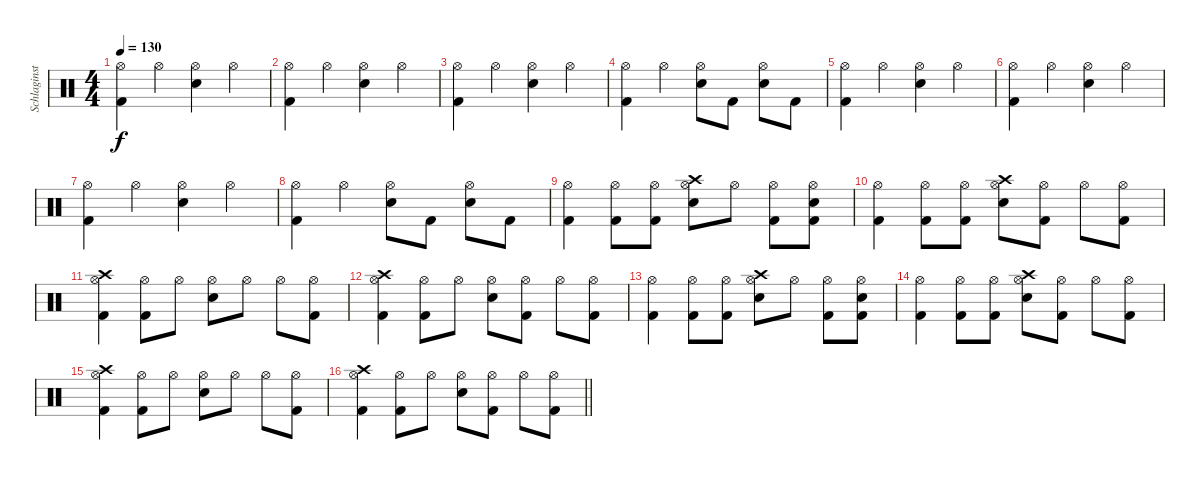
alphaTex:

\track ("Schlaginstrumente - Auswahl" "Schlaginst") {instrument percussion}
\staff {score}
\articulation defaults
\ts (4 4)
\tempo 130
\clef neutral
\ks c
("Hi-Hat (open)" "Kick (hit) 2").4{dy f} "Hi-Hat (open)".4 ("Hi-Hat (open)" "Snare (hit) 2").4 "Hi-Hat (open)".4 |
("Hi-Hat (open)" "Kick (hit) 2").4 "Hi-Hat (open)".4 ("Hi-Hat (open)" "Snare (hit) 2").4 "Hi-Hat (open)".4 |
("Hi-Hat (open)" "Kick (hit) 2").4 "Hi-Hat (open)".4 ("Hi-Hat (open)" "Snare (hit) 2").4 "Hi-Hat (open)".4 |
("Hi-Hat (open)" "Kick (hit) 2").4 "Hi-Hat (open)".4 ("Hi-Hat (open)" "Snare (hit) 2").8 "Kick (hit) 2".8 ("Hi-Hat (open)" "Snare (hit) 2").8 "Kick (hit) 2".8 |
("Hi-Hat (open)" "Kick (hit) 2").4 "Hi-Hat (open)".4 ("Hi-Hat (open)" "Snare (hit) 2").4 "Hi-Hat (open)".4 |
("Hi-Hat (open)" "Kick (hit) 2").4 "Hi-Hat (open)".4 ("Hi-Hat (open)" "Snare (hit) 2").4 "Hi-Hat (open)".4 |
("Hi-Hat (open)" "Kick (hit) 2").4 "Hi-Hat (open)".4 ("Hi-Hat (open)" "Snare (hit) 2").4 "Hi-Hat (open)".4 |
("Hi-Hat (open)" "Kick (hit) 2").4 "Hi-Hat (open)".4 ("Hi-Hat (open)" "Snare (hit) 2").8 "Kick (hit) 2".8 ("Hi-Hat (open)" "Snare (hit) 2").8 "Kick (hit) 2".8 |
("Hi-Hat (open)" "Kick (hit) 2").4 ("Hi-Hat (open)" "Kick (hit) 2").8 ("Hi-Hat (open)" "Kick (hit) 2").8 ("Crash high (hit)" "Hi-Hat (open)" "Snare (hit) 2").8 "Hi-Hat (open)".8 ("Hi-Hat (open)" "Kick (hit) 2").8 ("Hi-Hat (open)" "Snare (hit) 2" "Kick (hit) 2").8 |
("Hi-Hat (open)" "Kick (hit) 2").4 ("Hi-Hat (open)" "Kick (hit) 2").8 ("Hi-Hat (open)" "Kick (hit) 2").8 ("Crash high (hit)" "Hi-Hat (open)" "Snare (hit) 2").8 ("Hi-Hat (open)" "Kick (hit) 2").8 "Hi-Hat (open)".8 ("Hi-Hat (open)" "Kick (hit) 2").8 |
("Crash high (hit)" "Hi-Hat (open)" "Kick (hit) 2").4 ("Hi-Hat (open)" "Kick (hit) 2").8 "Hi-Hat (open)".8 ("Hi-Hat (open)" "Snare (hit) 2").8 "Hi-Hat (open)".8 "Hi-Hat (open)".8 ("Hi-Hat (open)" "Kick (hit) 2").8 |
("Crash high (hit)" "Hi-Hat (open)" "Kick (hit) 2").4 ("Hi-Hat (open)" "Kick (hit) 2").8 "Hi-Hat (open)".8 ("Hi-Hat (open)" "Snare (hit) 2").8 ("Hi-Hat (open)" "Kick (hit) 2").8 "Hi-Hat (open)".8 ("Hi-Hat (open)" "Kick (hit) 2").8 |
("Hi-Hat (open)" "Kick (hit) 2").4 ("Hi-Hat (open)" "Kick (hit) 2").8 ("Hi-Hat (open)" "Kick (hit) 2").8 ("Crash high (hit)" "Hi-Hat (open)" "Snare (hit) 2").8 "Hi-Hat (open)".8 ("Hi-Hat (open)" "Kick (hit) 2").8 ("Hi-Hat (open)" "Snare (hit) 2" "Kick (hit) 2").8 |
("Hi-Hat (open)" "Kick (hit) 2").4 ("Hi-Hat (open)" "Kick (hit) 2").8 ("Hi-Hat (open)" "Kick (hit) 2").8 ("Crash high (hit)" "Hi-Hat (open)" "Snare (hit) 2").8 ("Hi-Hat (open)" "Kick (hit) 2").8 "Hi-Hat (open)".8 ("Hi-Hat (open)" "Kick (hit) 2").8 |
("Crash high (hit)" "Hi-Hat (open)" "Kick (hit) 2").4 ("Hi-Hat (open)" "Kick (hit) 2").8 "Hi-Hat (open)".8 ("Hi-Hat (open)" "Snare (hit) 2").8 "Hi-Hat (open)".8 "Hi-Hat (open)".8 ("Hi-Hat (open)" "Kick (hit) 2").8 |
\barLineRight lightlight
("Crash high (hit)" "Hi-Hat (open)" "Kick (hit) 2").4 ("Hi-Hat (open)" "Kick (hit) 2").8 "Hi-Hat (open)".8 ("Hi-Hat (open)" "Snare (hit) 2").8 ("Hi-Hat (open)" "Kick (hit) 2").8 "Hi-Hat (open)".8 ("Hi-Hat (open)" "Kick (hit) 2").8
